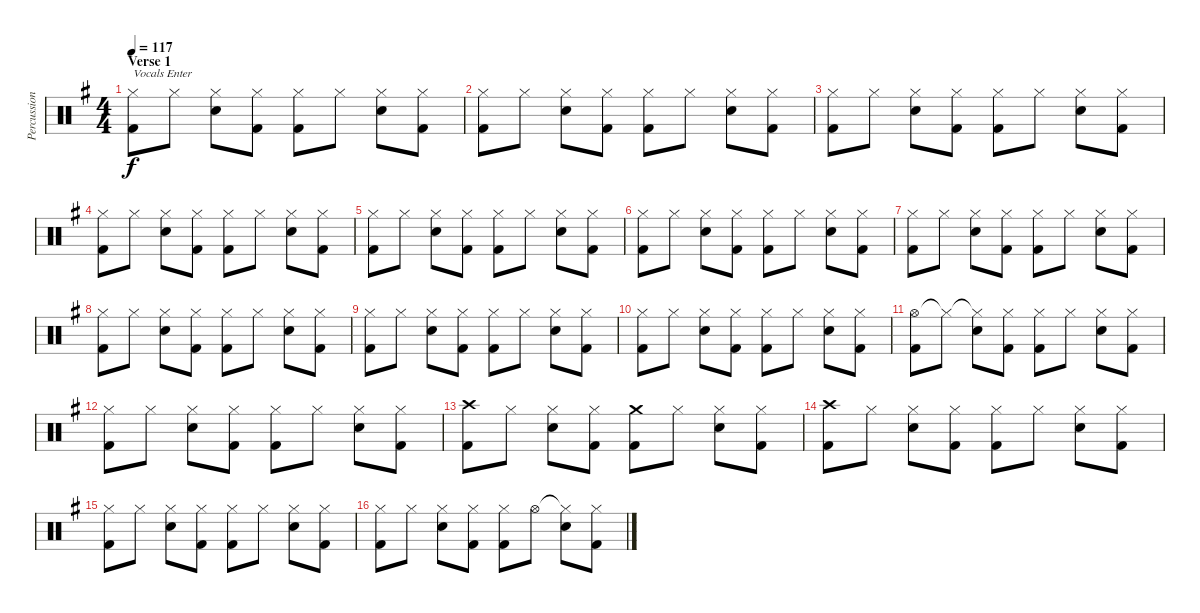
\track ("Percussion" "Percussion") {instrument percussion}
\staff {score}
\articulation defaults
\ts (4 4)
\section ("" "Verse 1")
\tempo 117
\clef neutral
\ks g
("Hi-Hat (closed)" "Kick (hit) 2").8{txt "Vocals Enter" dy f} "Hi-Hat (closed)".8 ("Hi-Hat (closed)" "Electric Snare (hit)").8 ("Hi-Hat (closed)" "Kick (hit) 2").8 ("Hi-Hat (closed)" "Kick (hit) 2").8 "Hi-Hat (closed)".8 ("Hi-Hat (closed)" "Electric Snare (hit)").8 ("Hi-Hat (closed)" "Kick (hit) 2").8 |
("Hi-Hat (closed)" "Kick (hit) 2").8 "Hi-Hat (closed)".8 ("Hi-Hat (closed)" "Electric Snare (hit)").8 ("Hi-Hat (closed)" "Kick (hit) 2").8 ("Hi-Hat (closed)" "Kick (hit) 2").8 "Hi-Hat (closed)".8 ("Hi-Hat (closed)" "Electric Snare (hit)").8 ("Hi-Hat (closed)" "Kick (hit) 2").8 |
("Hi-Hat (closed)" "Kick (hit) 2").8 "Hi-Hat (closed)".8 ("Hi-Hat (closed)" "Electric Snare (hit)").8 ("Hi-Hat (closed)" "Kick (hit) 2").8 ("Hi-Hat (closed)" "Kick (hit) 2").8 "Hi-Hat (closed)".8 ("Hi-Hat (closed)" "Electric Snare (hit)").8 ("Hi-Hat (closed)" "Kick (hit) 2").8 |
("Hi-Hat (closed)" "Kick (hit) 2").8 "Hi-Hat (closed)".8 ("Hi-Hat (closed)" "Electric Snare (hit)").8 ("Hi-Hat (closed)" "Kick (hit) 2").8 ("Hi-Hat (closed)" "Kick (hit) 2").8 "Hi-Hat (closed)".8 ("Hi-Hat (closed)" "Electric Snare (hit)").8 ("Hi-Hat (closed)" "Kick (hit) 2").8 |
("Hi-Hat (closed)" "Kick (hit) 2").8 "Hi-Hat (closed)".8 ("Hi-Hat (closed)" "Electric Snare (hit)").8 ("Hi-Hat (closed)" "Kick (hit) 2").8 ("Hi-Hat (closed)" "Kick (hit) 2").8 "Hi-Hat (closed)".8 ("Hi-Hat (closed)" "Electric Snare (hit)").8 ("Hi-Hat (closed)" "Kick (hit) 2").8 |
("Hi-Hat (closed)" "Kick (hit) 2").8 "Hi-Hat (closed)".8 ("Hi-Hat (closed)" "Electric Snare (hit)").8 ("Hi-Hat (closed)" "Kick (hit) 2").8 ("Hi-Hat (closed)" "Kick (hit) 2").8 "Hi-Hat (closed)".8 ("Hi-Hat (closed)" "Electric Snare (hit)").8 ("Hi-Hat (closed)" "Kick (hit) 2").8 |
("Hi-Hat (closed)" "Kick (hit) 2").8 "Hi-Hat (closed)".8 ("Hi-Hat (closed)" "Electric Snare (hit)").8 ("Hi-Hat (closed)" "Kick (hit) 2").8 ("Hi-Hat (closed)" "Kick (hit) 2").8 "Hi-Hat (closed)".8 ("Hi-Hat (closed)" "Electric Snare (hit)").8 ("Hi-Hat (closed)" "Kick (hit) 2").8 |
("Hi-Hat (closed)" "Kick (hit) 2").8 "Hi-Hat (closed)".8 ("Hi-Hat (closed)" "Electric Snare (hit)").8 ("Hi-Hat (closed)" "Kick (hit) 2").8 ("Hi-Hat (closed)" "Kick (hit) 2").8 "Hi-Hat (closed)".8 ("Hi-Hat (closed)" "Electric Snare (hit)").8 ("Hi-Hat (closed)" "Kick (hit) 2").8 |
("Hi-Hat (closed)" "Kick (hit) 2").8 "Hi-Hat (closed)".8 ("Hi-Hat (closed)" "Electric Snare (hit)").8 ("Hi-Hat (closed)" "Kick (hit) 2").8 ("Hi-Hat (closed)" "Kick (hit) 2").8 "Hi-Hat (closed)".8 ("Hi-Hat (closed)" "Electric Snare (hit)").8 ("Hi-Hat (closed)" "Kick (hit) 2").8 |
("Hi-Hat (closed)" "Kick (hit) 2").8 "Hi-Hat (closed)".8 ("Hi-Hat (closed)" "Electric Snare (hit)").8 ("Hi-Hat (closed)" "Kick (hit) 2").8 ("Hi-Hat (closed)" "Kick (hit) 2").8 "Hi-Hat (closed)".8 ("Hi-Hat (closed)" "Electric Snare (hit)").8 ("Hi-Hat (closed)" "Kick (hit) 2").8 |
("Hi-Hat (open)" "Kick (hit) 2").8 "Hi-Hat (closed)"{t}.8 ("Hi-Hat (closed)"{t} "Electric Snare (hit)").8 ("Hi-Hat (closed)" "Kick (hit) 2").8 ("Hi-Hat (closed)" "Kick (hit) 2").8 "Hi-Hat (closed)".8 ("Hi-Hat (closed)" "Electric Snare (hit)").8 ("Hi-Hat (closed)" "Kick (hit) 2").8 |
("Hi-Hat (closed)" "Kick (hit) 2").8 "Hi-Hat (closed)".8 ("Hi-Hat (closed)" "Electric Snare (hit)").8 ("Hi-Hat (closed)" "Kick (hit) 2").8 ("Hi-Hat (closed)" "Kick (hit) 2").8 "Hi-Hat (closed)".8 ("Hi-Hat (closed)" "Electric Snare (hit)").8 ("Hi-Hat (closed)" "Kick (hit) 2").8 |
("Crash high (hit)" "Kick (hit) 2").8 "Hi-Hat (closed)".8 ("Hi-Hat (closed)" "Electric Snare (hit)").8 ("Hi-Hat (closed)" "Kick (hit) 2").8 ("Crash medium (hit)" "Kick (hit) 2").8 "Hi-Hat (closed)".8 ("Hi-Hat (closed)" "Electric Snare (hit)").8 ("Hi-Hat (closed)" "Kick (hit) 2").8 |
("Crash high (hit)" "Kick (hit) 2").8 "Hi-Hat (closed)".8 ("Hi-Hat (closed)" "Electric Snare (hit)").8 ("Hi-Hat (closed)" "Kick (hit) 2").8 ("Hi-Hat (closed)" "Kick (hit) 2").8 "Hi-Hat (closed)".8 ("Hi-Hat (closed)" "Electric Snare (hit)").8 ("Hi-Hat (closed)" "Kick (hit) 2").8 |
("Hi-Hat (closed)" "Kick (hit) 2").8 "Hi-Hat (closed)".8 ("Hi-Hat (closed)" "Electric Snare (hit)").8 ("Hi-Hat (closed)" "Kick (hit) 2").8 ("Hi-Hat (closed)" "Kick (hit) 2").8 "Hi-Hat (closed)".8 ("Hi-Hat (closed)" "Electric Snare (hit)").8 ("Hi-Hat (closed)" "Kick (hit) 2").8 |
("Hi-Hat (closed)" "Kick (hit) 2").8 "Hi-Hat (closed)".8 ("Hi-Hat (closed)" "Electric Snare (hit)").8 ("Hi-Hat (closed)" "Kick (hit) 2").8 ("Hi-Hat (closed)" "Kick (hit) 2").8 "Hi-Hat (open)".8 ("Hi-Hat (closed)"{t} "Electric Snare (hit)").8 ("Hi-Hat (closed)" "Kick (hit) 2").8
